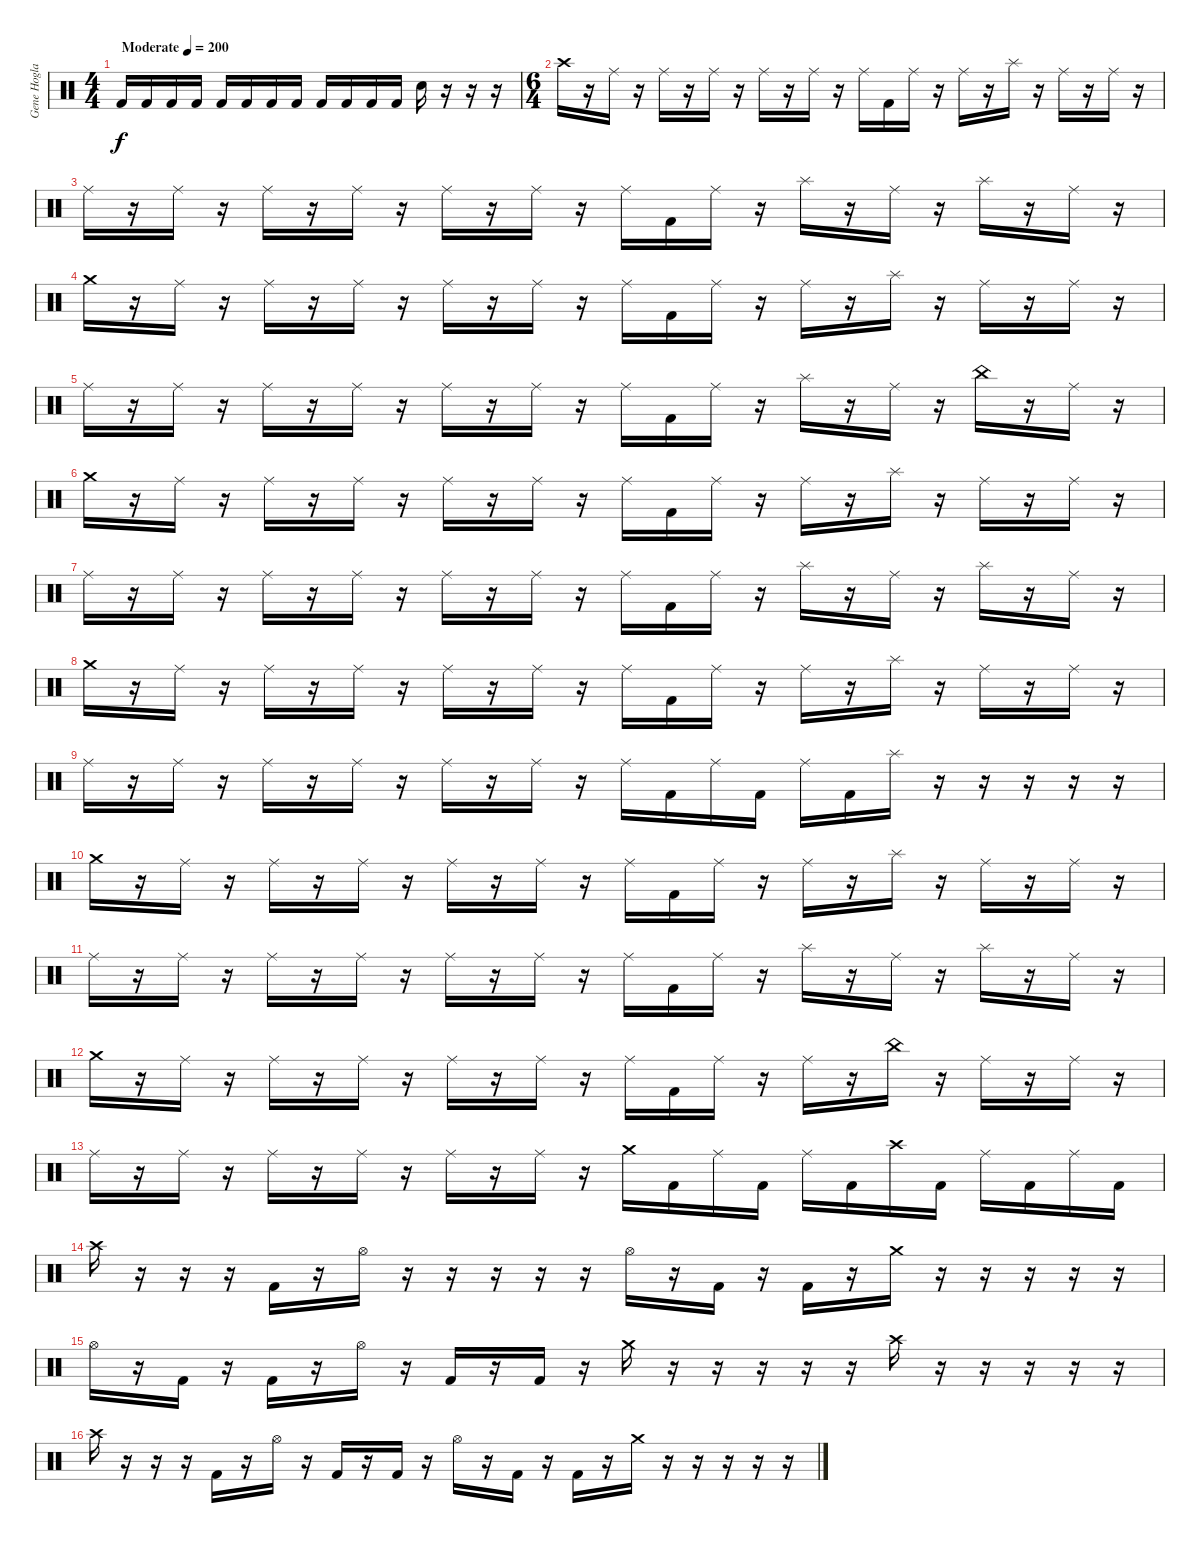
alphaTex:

\track ("Gene Hoglan" "Gene Hogla") {instrument percussion}
\staff {score}
\articulation defaults
\ts (4 4)
\tempo (200 "Moderate")
\clef neutral
\ks c "Kick (hit) 2".16{dy f} "Kick (hit) 2".16 "Kick (hit) 2".16 "Kick (hit) 2".16 "Kick (hit) 2".16 "Kick (hit) 2".16 "Kick (hit) 2".16 "Kick (hit) 2".16 "Kick (hit) 2".16 "Kick (hit) 2".16 "Kick (hit) 2".16 "Kick (hit) 2".16 "Snare (hit) 2".16
r.16 r.16 r.16 |
\ts (6 4)
"Crash high (hit)".16 r.16 "Ride (middle)".16 r.16 "Ride (middle)".16 r.16 "Ride (middle)".16 r.16 "Ride (middle)".16 r.16 "Ride (middle)".16 r.16 "Ride (middle)".16 "Kick (hit) 2".16 "Ride (middle)".16 r.16 "Ride (middle)".16 r.16 "Splash (hit)".16 r.16 "Ride (middle)".16 r.16 "Ride (middle)".16 r.16 |
"Ride (middle)".16 r.16 "Ride (middle)".16 r.16 "Ride (middle)".16 r.16 "Ride (middle)".16 r.16 "Ride (middle)".16 r.16 "Ride (middle)".16 r.16 "Ride (middle)".16 "Kick (hit) 2".16 "Ride (middle)".16 r.16 "Splash (hit)".16 r.16 "Ride (middle)".16 r.16 "Splash (hit)".16 r.16 "Ride (middle)".16 r.16 |
"Crash medium (hit)".16 r.16 "Ride (middle)".16 r.16 "Ride (middle)".16 r.16 "Ride (middle)".16 r.16 "Ride (middle)".16 r.16 "Ride (middle)".16 r.16 "Ride (middle)".16 "Kick (hit) 2".16 "Ride (middle)".16 r.16 "Ride (middle)".16 r.16 "Splash (hit)".16 r.16 "Ride (middle)".16 r.16 "Ride (middle)".16 r.16 |
"Ride (middle)".16 r.16 "Ride (middle)".16 r.16 "Ride (middle)".16 r.16 "Ride (middle)".16 r.16 "Ride (middle)".16 r.16 "Ride (middle)".16 r.16 "Ride (middle)".16 "Kick (hit) 2".16 "Ride (middle)".16 r.16 "Splash (hit)".16 r.16 "Ride (middle)".16 r.16 "China (hit)".16 r.16 "Ride (middle)".16 r.16 |
"Crash medium (hit)".16 r.16 "Ride (middle)".16 r.16 "Ride (middle)".16 r.16 "Ride (middle)".16 r.16 "Ride (middle)".16 r.16 "Ride (middle)".16 r.16 "Ride (middle)".16 "Kick (hit) 2".16 "Ride (middle)".16 r.16 "Ride (middle)".16 r.16 "Splash (hit)".16 r.16 "Ride (middle)".16 r.16 "Ride (middle)".16 r.16 |
"Ride (middle)".16 r.16 "Ride (middle)".16 r.16 "Ride (middle)".16 r.16 "Ride (middle)".16 r.16 "Ride (middle)".16 r.16 "Ride (middle)".16 r.16 "Ride (middle)".16 "Kick (hit) 2".16 "Ride (middle)".16 r.16 "Splash (hit)".16 r.16 "Ride (middle)".16 r.16 "Splash (hit)".16 r.16 "Ride (middle)".16 r.16 |
"Crash medium (hit)".16 r.16 "Ride (middle)".16 r.16 "Ride (middle)".16 r.16 "Ride (middle)".16 r.16 "Ride (middle)".16 r.16 "Ride (middle)".16 r.16 "Ride (middle)".16 "Kick (hit) 2".16 "Ride (middle)".16 r.16 "Ride (middle)".16 r.16 "Splash (hit)".16 r.16 "Ride (middle)".16 r.16 "Ride (middle)".16 r.16 |
"Ride (middle)".16 r.16 "Ride (middle)".16 r.16 "Ride (middle)".16 r.16 "Ride (middle)".16 r.16 "Ride (middle)".16 r.16 "Ride (middle)".16 r.16 "Ride (middle)".16 "Kick (hit) 2".16 "Ride (middle)".16 "Kick (hit) 2".16 "Ride (middle)".16 "Kick (hit) 2".16 "Splash (hit)".16 r.16 r.16 r.16 r.16 r.16 |
"Crash medium (hit)".16 r.16 "Ride (middle)".16 r.16 "Ride (middle)".16 r.16 "Ride (middle)".16 r.16 "Ride (middle)".16 r.16 "Ride (middle)".16 r.16 "Ride (middle)".16 "Kick (hit) 2".16 "Ride (middle)".16 r.16 "Ride (middle)".16 r.16 "Splash (hit)".16 r.16 "Ride (middle)".16 r.16 "Ride (middle)".16 r.16 |
"Ride (middle)".16 r.16 "Ride (middle)".16 r.16 "Ride (middle)".16 r.16 "Ride (middle)".16 r.16 "Ride (middle)".16 r.16 "Ride (middle)".16 r.16 "Ride (middle)".16 "Kick (hit) 2".16 "Ride (middle)".16 r.16 "Splash (hit)".16 r.16 "Ride (middle)".16 r.16 "Splash (hit)".16 r.16 "Ride (middle)".16 r.16 |
"Crash medium (hit)".16 r.16 "Ride (middle)".16 r.16 "Ride (middle)".16 r.16 "Ride (middle)".16 r.16 "Ride (middle)".16 r.16 "Ride (middle)".16 r.16 "Ride (middle)".16 "Kick (hit) 2".16 "Ride (middle)".16 r.16 "Ride (middle)".16 r.16 "China (hit)".16 r.16 "Ride (middle)".16 r.16 "Ride (middle)".16 r.16 |
"Ride (middle)".16 r.16 "Ride (middle)".16 r.16 "Ride (middle)".16 r.16 "Ride (middle)".16 r.16 "Ride (middle)".16 r.16 "Ride (middle)".16 r.16 "Crash medium (hit)".16 "Kick (hit) 2".16 "Ride (middle)".16 "Kick (hit) 2".16 "Ride (middle)".16 "Kick (hit) 2".16 "Crash high (hit)".16 "Kick (hit) 2".16 "Ride (middle)".16 "Kick (hit) 2".16 "Ride (middle)".16 "Kick (hit) 2".16 |
"Crash high (hit)".16 r.16 r.16 r.16 "Kick (hit) 2".16 r.16 "Hi-Hat (open)".16 r.16 r.16 r.16 r.16 r.16 "Hi-Hat (open)".16 r.16 "Kick (hit) 2".16 r.16 "Kick (hit) 2".16 r.16 "Crash medium (hit)".16 r.16 r.16 r.16 r.16 r.16 |
"Hi-Hat (open)".16 r.16 "Kick (hit) 2".16 r.16 "Kick (hit) 2".16 r.16 "Hi-Hat (open)".16 r.16 "Kick (hit) 2".16 r.16 "Kick (hit) 2".16 r.16 "Crash medium (hit)".16 r.16 r.16 r.16 r.16 r.16 "Crash high (hit)".16 r.16 r.16 r.16 r.16 r.16 |
"Crash high (hit)".16 r.16 r.16 r.16 "Kick (hit) 2".16 r.16 "Hi-Hat (open)".16 r.16 "Kick (hit) 2".16 r.16 "Kick (hit) 2".16 r.16 "Hi-Hat (open)".16 r.16 "Kick (hit) 2".16 r.16 "Kick (hit) 2".16 r.16 "Crash medium (hit)".16 r.16 r.16 r.16 r.16 r.16
